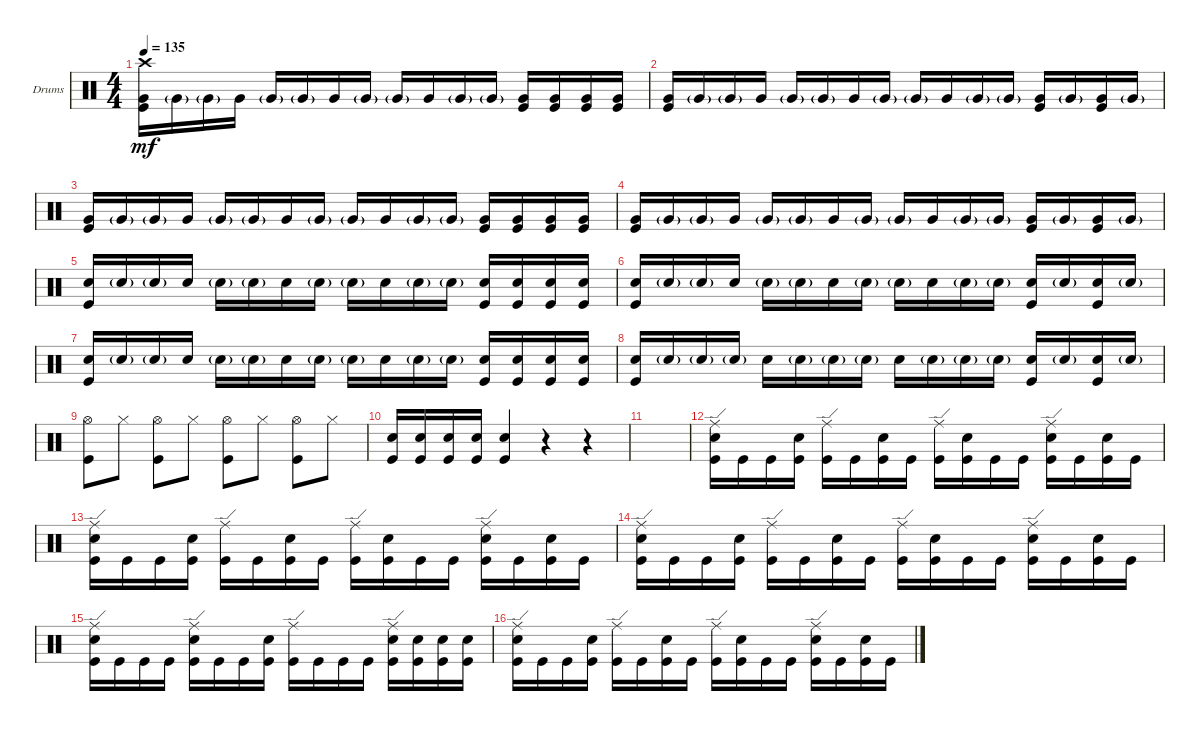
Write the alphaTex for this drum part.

\defaultSystemsLayout 4
\bracketExtendMode groupsimilarinstruments
\firstSystemTrackNameOrientation horizontal
\otherSystemsTrackNameOrientation horizontal
\track ("Rolo" "Drums") {instrument percussion}
\staff {score}
\articulation defaults
\ts (4 4)
\tempo 135
\clef neutral
\ks c
("Very Low Tom (hit)" "Kick (hit)" "Crash high (hit)").16{dy mf} "Very Low Tom (hit)"{g}.16 "Very Low Tom (hit)"{g}.16 "Very Low Tom (hit)".16 "Very Low Tom (hit)"{g}.16 "Very Low Tom (hit)"{g}.16 "Very Low Tom (hit)".16 "Very Low Tom (hit)"{g}.16 "Very Low Tom (hit)"{g}.16 "Very Low Tom (hit)".16 "Very Low Tom (hit)"{g}.16 "Very Low Tom (hit)"{g}.16 ("Very Low Tom (hit)" "Kick (hit)").16 ("Very Low Tom (hit)" "Kick (hit)").16 ("Very Low Tom (hit)" "Kick (hit)").16 ("Very Low Tom (hit)" "Kick (hit)").16 |
("Very Low Tom (hit)" "Kick (hit)").16 "Very Low Tom (hit)"{g}.16 "Very Low Tom (hit)"{g}.16 "Very Low Tom (hit)".16 "Very Low Tom (hit)"{g}.16 "Very Low Tom (hit)"{g}.16 "Very Low Tom (hit)".16 "Very Low Tom (hit)"{g}.16 "Very Low Tom (hit)"{g}.16 "Very Low Tom (hit)".16 "Very Low Tom (hit)"{g}.16 "Very Low Tom (hit)"{g}.16 ("Very Low Tom (hit)" "Kick (hit)").16 "Very Low Tom (hit)"{g}.16 ("Very Low Tom (hit)" "Kick (hit)").16 "Very Low Tom (hit)"{g}.16 |
("Very Low Tom (hit)" "Kick (hit)").16 "Very Low Tom (hit)"{g}.16 "Very Low Tom (hit)"{g}.16 "Very Low Tom (hit)".16 "Very Low Tom (hit)"{g}.16 "Very Low Tom (hit)"{g}.16 "Very Low Tom (hit)".16 "Very Low Tom (hit)"{g}.16 "Very Low Tom (hit)"{g}.16 "Very Low Tom (hit)".16 "Very Low Tom (hit)"{g}.16 "Very Low Tom (hit)"{g}.16 ("Very Low Tom (hit)" "Kick (hit)").16 ("Very Low Tom (hit)" "Kick (hit)").16 ("Very Low Tom (hit)" "Kick (hit)").16 ("Very Low Tom (hit)" "Kick (hit)").16 |
("Very Low Tom (hit)" "Kick (hit)").16 "Very Low Tom (hit)"{g}.16 "Very Low Tom (hit)"{g}.16 "Very Low Tom (hit)".16 "Very Low Tom (hit)"{g}.16 "Very Low Tom (hit)"{g}.16 "Very Low Tom (hit)".16 "Very Low Tom (hit)"{g}.16 "Very Low Tom (hit)"{g}.16 "Very Low Tom (hit)".16 "Very Low Tom (hit)"{g}.16 "Very Low Tom (hit)"{g}.16 ("Very Low Tom (hit)" "Kick (hit)").16 "Very Low Tom (hit)"{g}.16 ("Very Low Tom (hit)" "Kick (hit)").16 "Very Low Tom (hit)"{g}.16 |
("Kick (hit)" "Snare (hit) 2").16 "Snare (hit) 2"{g}.16 "Snare (hit) 2"{g}.16 "Snare (hit) 2".16 "Snare (hit) 2"{g}.16 "Snare (hit) 2"{g}.16 "Snare (hit) 2".16 "Snare (hit) 2"{g}.16 "Snare (hit) 2"{g}.16 "Snare (hit) 2".16 "Snare (hit) 2"{g}.16 "Snare (hit) 2"{g}.16 ("Kick (hit)" "Snare (hit) 2").16 ("Snare (hit) 2" "Kick (hit)").16 ("Kick (hit)" "Snare (hit) 2").16 ("Snare (hit) 2" "Kick (hit)").16 |
("Kick (hit)" "Snare (hit) 2").16 "Snare (hit) 2"{g}.16 "Snare (hit) 2"{g}.16 "Snare (hit) 2".16 "Snare (hit) 2"{g}.16 "Snare (hit) 2"{g}.16 "Snare (hit) 2".16 "Snare (hit) 2"{g}.16 "Snare (hit) 2"{g}.16 "Snare (hit) 2".16 "Snare (hit) 2"{g}.16 "Snare (hit) 2"{g}.16 ("Kick (hit)" "Snare (hit) 2").16 "Snare (hit) 2"{g}.16 ("Kick (hit)" "Snare (hit) 2").16 "Snare (hit) 2"{g}.16 |
("Kick (hit)" "Snare (hit) 2").16 "Snare (hit) 2"{g}.16 "Snare (hit) 2"{g}.16 "Snare (hit) 2".16 "Snare (hit) 2"{g}.16 "Snare (hit) 2"{g}.16 "Snare (hit) 2".16 "Snare (hit) 2"{g}.16 "Snare (hit) 2"{g}.16 "Snare (hit) 2".16 "Snare (hit) 2"{g}.16 "Snare (hit) 2"{g}.16 ("Kick (hit)" "Snare (hit) 2").16 ("Snare (hit) 2" "Kick (hit)").16 ("Kick (hit)" "Snare (hit) 2").16 ("Snare (hit) 2" "Kick (hit)").16 |
("Kick (hit)" "Snare (hit) 2").16 "Snare (hit) 2"{g}.16 "Snare (hit) 2"{g}.16 "Snare (hit) 2"{g}.16 "Snare (hit) 2".16 "Snare (hit) 2"{g}.16 "Snare (hit) 2"{g}.16 "Snare (hit) 2"{g}.16 "Snare (hit) 2".16 "Snare (hit) 2"{g}.16 "Snare (hit) 2"{g}.16 "Snare (hit) 2"{g}.16 ("Kick (hit)" "Snare (hit) 2").16 "Snare (hit) 2"{g}.16 ("Kick (hit)" "Snare (hit) 2").16 "Snare (hit) 2"{g}.16 |
("Kick (hit)" "Hi-Hat (open)").8 "Hi-Hat (closed)".8 ("Kick (hit)" "Hi-Hat (open)").8 "Hi-Hat (closed)".8 ("Kick (hit)" "Hi-Hat (open)").8 "Hi-Hat (closed)".8 ("Kick (hit)" "Hi-Hat (open)").8 "Hi-Hat (closed)".8 |
("Snare (hit) 2" "Kick (hit)").16 ("Snare (hit) 2" "Kick (hit)").16 ("Snare (hit) 2" "Kick (hit)").16 ("Snare (hit) 2" "Kick (hit)").16 ("Snare (hit) 2" "Kick (hit)").4 r.4 r.4 |
|
("Kick (hit)" "Snare (hit) 2" "Ride (edge)").16 "Kick (hit)".16 "Kick (hit)".16 ("Kick (hit)" "Snare (hit) 2").16 ("Kick (hit)" "Ride (edge)").16 "Kick (hit)".16 ("Kick (hit)" "Snare (hit) 2").16 "Kick (hit)".16 ("Kick (hit)" "Ride (edge)").16 ("Kick (hit)" "Snare (hit) 2").16 "Kick (hit)".16 "Kick (hit)".16 ("Kick (hit)" "Snare (hit) 2" "Ride (edge)").16 "Kick (hit)".16 ("Kick (hit)" "Snare (hit) 2").16 "Kick (hit)".16 |
("Kick (hit)" "Snare (hit) 2" "Ride (edge)").16 "Kick (hit)".16 "Kick (hit)".16 ("Kick (hit)" "Snare (hit) 2").16 ("Kick (hit)" "Ride (edge)").16 "Kick (hit)".16 ("Kick (hit)" "Snare (hit) 2").16 "Kick (hit)".16 ("Kick (hit)" "Ride (edge)").16 ("Kick (hit)" "Snare (hit) 2").16 "Kick (hit)".16 "Kick (hit)".16 ("Kick (hit)" "Snare (hit) 2" "Ride (edge)").16 "Kick (hit)".16 ("Kick (hit)" "Snare (hit) 2").16 "Kick (hit)".16 |
("Kick (hit)" "Snare (hit) 2" "Ride (edge)").16 "Kick (hit)".16 "Kick (hit)".16 ("Kick (hit)" "Snare (hit) 2").16 ("Kick (hit)" "Ride (edge)").16 "Kick (hit)".16 ("Kick (hit)" "Snare (hit) 2").16 "Kick (hit)".16 ("Kick (hit)" "Ride (edge)").16 ("Kick (hit)" "Snare (hit) 2").16 "Kick (hit)".16 "Kick (hit)".16 ("Kick (hit)" "Snare (hit) 2" "Ride (edge)").16 "Kick (hit)".16 ("Kick (hit)" "Snare (hit) 2").16 "Kick (hit)".16 |
("Kick (hit)" "Ride (edge)" "Snare (hit) 2").16 "Kick (hit)".16 "Kick (hit)".16 "Kick (hit)".16 ("Kick (hit)" "Ride (edge)" "Snare (hit) 2").16 "Kick (hit)".16 "Kick (hit)".16 ("Kick (hit)" "Snare (hit) 2").16 ("Kick (hit)" "Ride (edge)").16 "Kick (hit)".16 "Kick (hit)".16 "Kick (hit)".16 ("Kick (hit)" "Ride (edge)" "Snare (hit) 2").16 ("Kick (hit)" "Snare (hit) 2").16 ("Kick (hit)" "Snare (hit) 2").16 ("Kick (hit)" "Snare (hit) 2").16 |
("Kick (hit)" "Snare (hit) 2" "Ride (edge)").16 "Kick (hit)".16 "Kick (hit)".16 ("Kick (hit)" "Snare (hit) 2").16 ("Kick (hit)" "Ride (edge)").16 "Kick (hit)".16 ("Kick (hit)" "Snare (hit) 2").16 "Kick (hit)".16 ("Kick (hit)" "Ride (edge)").16 ("Kick (hit)" "Snare (hit) 2").16 "Kick (hit)".16 "Kick (hit)".16 ("Kick (hit)" "Snare (hit) 2" "Ride (edge)").16 "Kick (hit)".16 ("Kick (hit)" "Snare (hit) 2").16 "Kick (hit)".16
